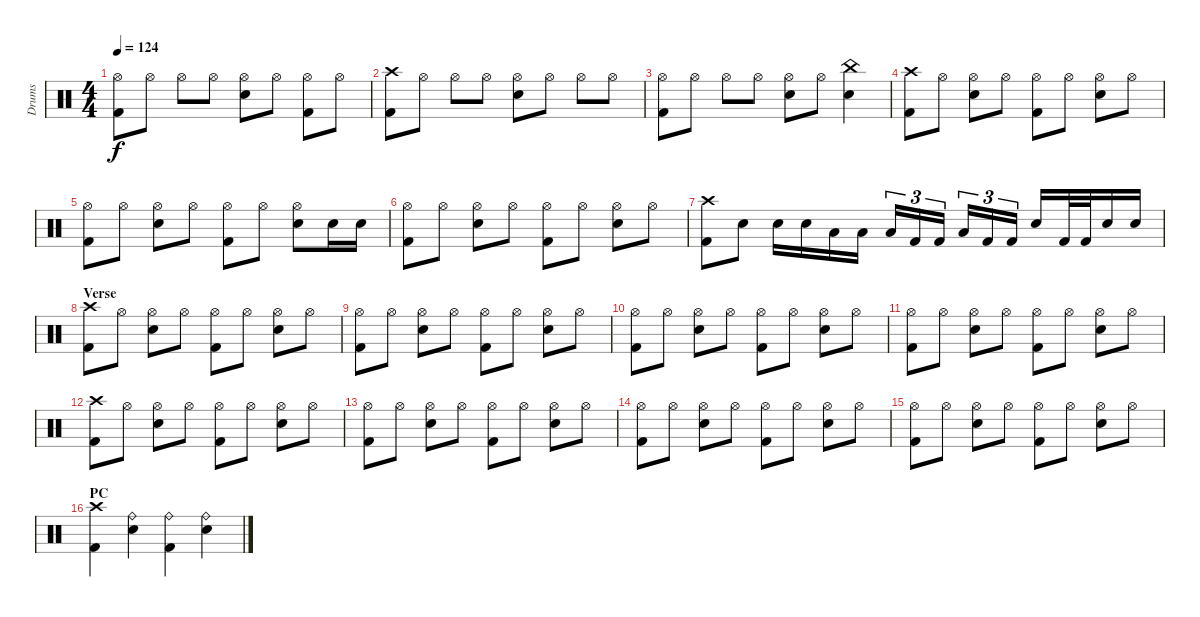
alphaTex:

\track ("Drums" "Drums") {instrument percussion}
\staff {score}
\articulation defaults
\ts (4 4)
\tempo 124
\clef neutral
\ks c
("Hi-Hat (open)" "Kick (hit) 2").8{dy f} "Hi-Hat (open)".8 "Hi-Hat (open)".8 "Hi-Hat (open)".8 ("Hi-Hat (open)" "Electric Snare (hit)").8 "Hi-Hat (open)".8 ("Hi-Hat (open)" "Kick (hit) 2").8 "Hi-Hat (open)".8 |
("Crash high (hit)" "Kick (hit) 2").8 "Hi-Hat (open)".8 "Hi-Hat (open)".8 "Hi-Hat (open)".8 ("Hi-Hat (open)" "Electric Snare (hit)").8 "Hi-Hat (open)".8 "Hi-Hat (open)".8 "Hi-Hat (open)".8 |
("Hi-Hat (open)" "Kick (hit) 2").8 "Hi-Hat (open)".8 "Hi-Hat (open)".8 "Hi-Hat (open)".8 ("Hi-Hat (open)" "Electric Snare (hit)").8 "Hi-Hat (open)".8 ("China (hit)" "Electric Snare (hit)").4 |
("Crash high (hit)" "Kick (hit) 2").8 "Hi-Hat (open)".8 ("Hi-Hat (open)" "Electric Snare (hit)").8 "Hi-Hat (open)".8 ("Hi-Hat (open)" "Kick (hit) 2").8 "Hi-Hat (open)".8 ("Hi-Hat (open)" "Electric Snare (hit)").8 "Hi-Hat (open)".8 |
("Hi-Hat (open)" "Kick (hit) 2").8 "Hi-Hat (open)".8 ("Hi-Hat (open)" "Electric Snare (hit)").8 "Hi-Hat (open)".8 ("Hi-Hat (open)" "Kick (hit) 2").8 "Hi-Hat (open)".8 ("Hi-Hat (open)" "Electric Snare (hit)").8 "Electric Snare (hit)".16 "Electric Snare (hit)".16 |
("Hi-Hat (open)" "Kick (hit) 2").8 "Hi-Hat (open)".8 ("Hi-Hat (open)" "Electric Snare (hit)").8 "Hi-Hat (open)".8 ("Hi-Hat (open)" "Kick (hit) 2").8 "Hi-Hat (open)".8 ("Hi-Hat (open)" "Electric Snare (hit)").8 "Hi-Hat (open)".8 |
("Crash high (hit)" "Kick (hit) 2").8 "Electric Snare (hit)".8 "Electric Snare (hit)".16 "Electric Snare (hit)".16 "Low Tom (hit)".16 "Low Tom (hit)".16 "Low Floor Tom (hit)".16{tu (3 2)} "Kick (hit) 2".16{tu (3 2)} "Kick (hit) 2".16{tu (3 2)} "Low Floor Tom (hit)".16{tu (3 2)} "Kick (hit) 2".16{tu (3 2)} "Kick (hit) 2".16{tu (3 2)} "Electric Snare (hit)".16 "Kick (hit) 2".32 "Kick (hit) 2".32 "Electric Snare (hit)".16 "Electric Snare (hit)".16 |
\section ("" "Verse")
("Crash high (hit)" "Kick (hit) 2").8 "Hi-Hat (open)".8 ("Hi-Hat (open)" "Electric Snare (hit)").8 "Hi-Hat (open)".8 ("Hi-Hat (open)" "Kick (hit) 2").8 "Hi-Hat (open)".8 ("Hi-Hat (open)" "Electric Snare (hit)").8 "Hi-Hat (open)".8 |
("Hi-Hat (open)" "Kick (hit) 2").8 "Hi-Hat (open)".8 ("Hi-Hat (open)" "Electric Snare (hit)").8 "Hi-Hat (open)".8 ("Hi-Hat (open)" "Kick (hit) 2").8 "Hi-Hat (open)".8 ("Hi-Hat (open)" "Electric Snare (hit)").8 "Hi-Hat (open)".8 |
("Hi-Hat (open)" "Kick (hit) 2").8 "Hi-Hat (open)".8 ("Hi-Hat (open)" "Electric Snare (hit)").8 "Hi-Hat (open)".8 ("Hi-Hat (open)" "Kick (hit) 2").8 "Hi-Hat (open)".8 ("Hi-Hat (open)" "Electric Snare (hit)").8 "Hi-Hat (open)".8 |
("Hi-Hat (open)" "Kick (hit) 2").8 "Hi-Hat (open)".8 ("Hi-Hat (open)" "Electric Snare (hit)").8 "Hi-Hat (open)".8 ("Hi-Hat (open)" "Kick (hit) 2").8 "Hi-Hat (open)".8 ("Hi-Hat (open)" "Electric Snare (hit)").8 "Hi-Hat (open)".8 |
("Crash high (hit)" "Kick (hit) 2").8 "Hi-Hat (open)".8 ("Hi-Hat (open)" "Electric Snare (hit)").8 "Hi-Hat (open)".8 ("Hi-Hat (open)" "Kick (hit) 2").8 "Hi-Hat (open)".8 ("Hi-Hat (open)" "Electric Snare (hit)").8 "Hi-Hat (open)".8 |
("Hi-Hat (open)" "Kick (hit) 2").8 "Hi-Hat (open)".8 ("Hi-Hat (open)" "Electric Snare (hit)").8 "Hi-Hat (open)".8 ("Hi-Hat (open)" "Kick (hit) 2").8 "Hi-Hat (open)".8 ("Hi-Hat (open)" "Electric Snare (hit)").8 "Hi-Hat (open)".8 |
("Hi-Hat (open)" "Kick (hit) 2").8 "Hi-Hat (open)".8 ("Hi-Hat (open)" "Electric Snare (hit)").8 "Hi-Hat (open)".8 ("Hi-Hat (open)" "Kick (hit) 2").8 "Hi-Hat (open)".8 ("Hi-Hat (open)" "Electric Snare (hit)").8 "Hi-Hat (open)".8 |
("Hi-Hat (open)" "Kick (hit) 2").8 "Hi-Hat (open)".8 ("Hi-Hat (open)" "Electric Snare (hit)").8 "Hi-Hat (open)".8 ("Hi-Hat (open)" "Kick (hit) 2").8 "Hi-Hat (open)".8 ("Hi-Hat (open)" "Electric Snare (hit)").8 "Hi-Hat (open)".8 |
\section ("" "PC")
("Crash high (hit)" "Kick (hit) 2").4 ("Ride (bell)" "Electric Snare (hit)").4 ("Ride (bell)" "Kick (hit) 2").4 ("Ride (bell)" "Electric Snare (hit)").4
